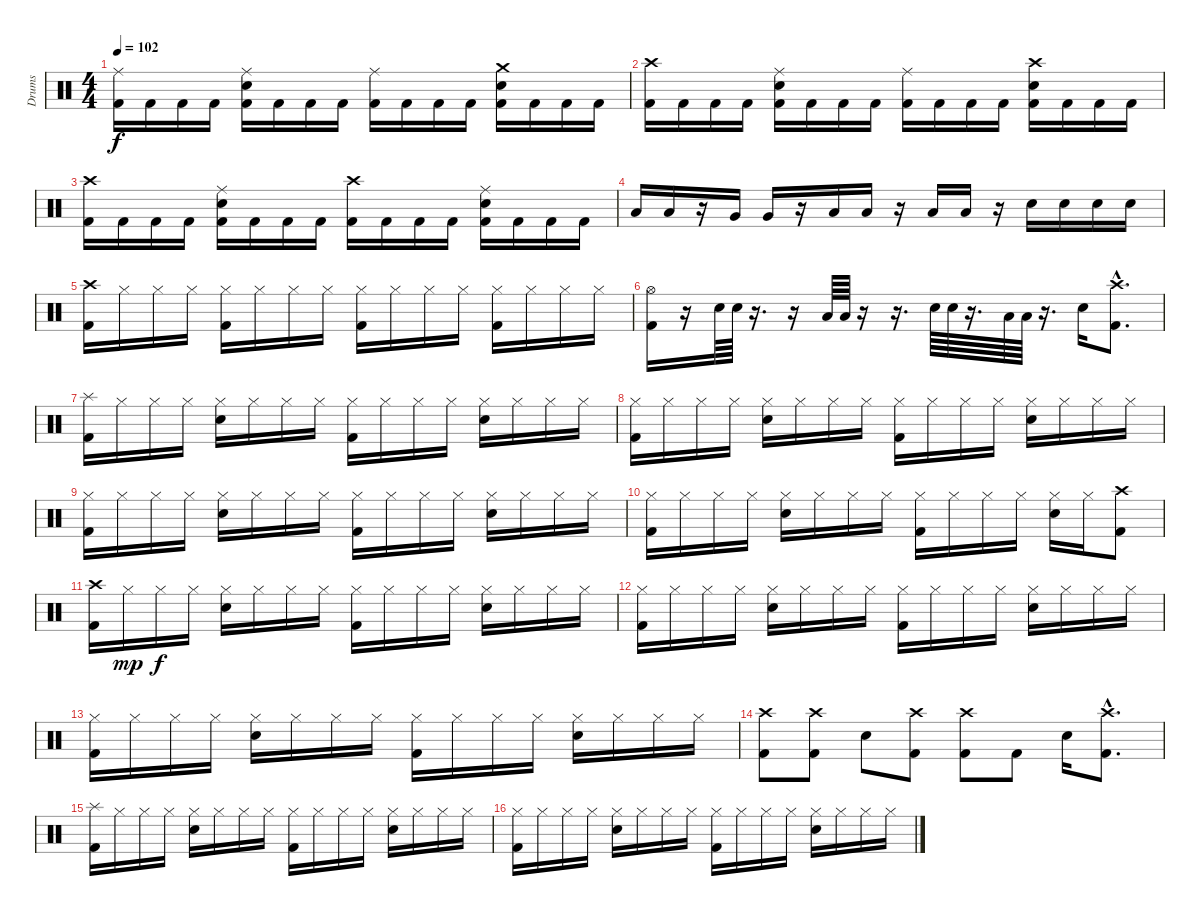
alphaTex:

\track ("Drums" "Drums") {instrument percussion}
\staff {score}
\articulation defaults
\ts (4 4)
\tempo 102
\clef neutral
\ks c
("Ride (middle)" "Kick (hit) 2").16{dy f} "Kick (hit) 2".16 "Kick (hit) 2".16 "Kick (hit) 2".16 ("Ride (middle)" "Snare (hit) 2" "Kick (hit) 2").16 "Kick (hit) 2".16 "Kick (hit) 2".16 "Kick (hit) 2".16 ("Ride (middle)" "Kick (hit) 2").16 "Kick (hit) 2".16 "Kick (hit) 2".16 "Kick (hit) 2".16 ("Crash medium (hit)" "Snare (hit) 2" "Kick (hit) 2").16 "Kick (hit) 2".16 "Kick (hit) 2".16 "Kick (hit) 2".16 |
("Crash high (hit)" "Kick (hit) 2").16 "Kick (hit) 2".16 "Kick (hit) 2".16 "Kick (hit) 2".16 ("Ride (middle)" "Snare (hit) 2" "Kick (hit) 2").16 "Kick (hit) 2".16 "Kick (hit) 2".16 "Kick (hit) 2".16 ("Ride (middle)" "Kick (hit) 2").16 "Kick (hit) 2".16 "Kick (hit) 2".16 "Kick (hit) 2".16 ("Crash high (hit)" "Snare (hit) 2" "Kick (hit) 2").16 "Kick (hit) 2".16 "Kick (hit) 2".16 "Kick (hit) 2".16 |
("Crash high (hit)" "Kick (hit) 2").16 "Kick (hit) 2".16 "Kick (hit) 2".16 "Kick (hit) 2".16 ("Ride (middle)" "Snare (hit) 2" "Kick (hit) 2").16 "Kick (hit) 2".16 "Kick (hit) 2".16 "Kick (hit) 2".16 ("Crash high (hit)" "Kick (hit) 2").16 "Kick (hit) 2".16 "Kick (hit) 2".16 "Kick (hit) 2".16 ("Ride (middle)" "Snare (hit) 2" "Kick (hit) 2").16 "Kick (hit) 2".16 "Kick (hit) 2".16 "Kick (hit) 2".16 |
"Low Tom (hit)".16 "Low Tom (hit)".16 r.16 "Very Low Tom (hit)".16 "Very Low Tom (hit)".16 r.16 "Low Floor Tom (hit)".16 "Low Floor Tom (hit)".16 r.16 "Low Floor Tom (hit)".16 "Low Floor Tom (hit)".16 r.16 "Snare (hit) 2".16 "Snare (hit) 2".16 "Snare (hit) 2".16 "Snare (hit) 2".16 |
("Crash high (hit)" "Kick (hit) 2").16 "Hi-Hat (closed)".16 "Hi-Hat (closed)".16 "Hi-Hat (closed)".16 ("Hi-Hat (closed)" "Kick (hit) 2").16 "Hi-Hat (closed)".16 "Hi-Hat (closed)".16 "Hi-Hat (closed)".16 ("Hi-Hat (closed)" "Kick (hit) 2").16 "Hi-Hat (closed)".16 "Hi-Hat (closed)".16 "Hi-Hat (closed)".16 ("Hi-Hat (closed)" "Kick (hit) 2").16 "Hi-Hat (closed)".16 "Hi-Hat (closed)".16 "Hi-Hat (closed)".16 |
("Hi-Hat (open)" "Kick (hit) 2").16 r.16 "Snare (hit) 2".64 "Snare (hit) 2".64 r.16{d} r.16 "Low Tom (hit)".64 "Low Tom (hit)".64 r.16 r.16{d} "Snare (hit) 2".64 "Snare (hit) 2".64 r.16{d} "Low Tom (hit)".64 "Low Tom (hit)".64 r.16{d} "Snare (hit) 2".16 ("Crash high (hit)"{hac} "Kick (hit) 2"{hac}).8{d} |
("Splash (hit)" "Kick (hit) 2").16 "Hi-Hat (closed)".16 "Hi-Hat (closed)".16 "Hi-Hat (closed)".16 ("Hi-Hat (closed)" "Snare (hit) 2").16 "Hi-Hat (closed)".16 "Hi-Hat (closed)".16 "Hi-Hat (closed)".16 ("Hi-Hat (closed)" "Kick (hit) 2").16 "Hi-Hat (closed)".16 "Hi-Hat (closed)".16 "Hi-Hat (closed)".16 ("Hi-Hat (closed)" "Snare (hit) 2").16 "Hi-Hat (closed)".16 "Hi-Hat (closed)".16 "Hi-Hat (closed)".16 |
("Hi-Hat (closed)" "Kick (hit) 2").16 "Hi-Hat (closed)".16 "Hi-Hat (closed)".16 "Hi-Hat (closed)".16 ("Hi-Hat (closed)" "Snare (hit) 2").16 "Hi-Hat (closed)".16 "Hi-Hat (closed)".16 "Hi-Hat (closed)".16 ("Hi-Hat (closed)" "Kick (hit) 2").16 "Hi-Hat (closed)".16 "Hi-Hat (closed)".16 "Hi-Hat (closed)".16 ("Hi-Hat (closed)" "Snare (hit) 2").16 "Hi-Hat (closed)".16 "Hi-Hat (closed)".16 "Hi-Hat (closed)".16 |
("Hi-Hat (closed)" "Kick (hit) 2").16 "Hi-Hat (closed)".16 "Hi-Hat (closed)".16 "Hi-Hat (closed)".16 ("Hi-Hat (closed)" "Snare (hit) 2").16 "Hi-Hat (closed)".16 "Hi-Hat (closed)".16 "Hi-Hat (closed)".16 ("Hi-Hat (closed)" "Kick (hit) 2").16 "Hi-Hat (closed)".16 "Hi-Hat (closed)".16 "Hi-Hat (closed)".16 ("Hi-Hat (closed)" "Snare (hit) 2").16 "Hi-Hat (closed)".16 "Hi-Hat (closed)".16 "Hi-Hat (closed)".16 |
("Hi-Hat (closed)" "Kick (hit) 2").16 "Hi-Hat (closed)".16 "Hi-Hat (closed)".16 "Hi-Hat (closed)".16 ("Hi-Hat (closed)" "Snare (hit) 2").16 "Hi-Hat (closed)".16 "Hi-Hat (closed)".16 "Hi-Hat (closed)".16 ("Hi-Hat (closed)" "Kick (hit) 2").16 "Hi-Hat (closed)".16 "Hi-Hat (closed)".16 "Hi-Hat (closed)".16 ("Hi-Hat (closed)" "Snare (hit) 2").16 "Hi-Hat (closed)".16 ("Crash high (hit)" "Kick (hit) 2").8 |
("Crash high (hit)" "Kick (hit) 2").16 "Hi-Hat (closed)".16{dy mp} "Hi-Hat (closed)".16{dy f} "Hi-Hat (closed)".16 ("Hi-Hat (closed)" "Snare (hit) 2").16 "Hi-Hat (closed)".16 "Hi-Hat (closed)".16 "Hi-Hat (closed)".16 ("Hi-Hat (closed)" "Kick (hit) 2").16 "Hi-Hat (closed)".16 "Hi-Hat (closed)".16 "Hi-Hat (closed)".16 ("Hi-Hat (closed)" "Snare (hit) 2").16 "Hi-Hat (closed)".16 "Hi-Hat (closed)".16 "Hi-Hat (closed)".16 |
("Hi-Hat (closed)" "Kick (hit) 2").16 "Hi-Hat (closed)".16 "Hi-Hat (closed)".16 "Hi-Hat (closed)".16 ("Hi-Hat (closed)" "Snare (hit) 2").16 "Hi-Hat (closed)".16 "Hi-Hat (closed)".16 "Hi-Hat (closed)".16 ("Hi-Hat (closed)" "Kick (hit) 2").16 "Hi-Hat (closed)".16 "Hi-Hat (closed)".16 "Hi-Hat (closed)".16 ("Hi-Hat (closed)" "Snare (hit) 2").16 "Hi-Hat (closed)".16 "Hi-Hat (closed)".16 "Hi-Hat (closed)".16 |
("Hi-Hat (closed)" "Kick (hit) 2").16 "Hi-Hat (closed)".16 "Hi-Hat (closed)".16 "Hi-Hat (closed)".16 ("Hi-Hat (closed)" "Snare (hit) 2").16 "Hi-Hat (closed)".16 "Hi-Hat (closed)".16 "Hi-Hat (closed)".16 ("Hi-Hat (closed)" "Kick (hit) 2").16 "Hi-Hat (closed)".16 "Hi-Hat (closed)".16 "Hi-Hat (closed)".16 ("Hi-Hat (closed)" "Snare (hit) 2").16 "Hi-Hat (closed)".16 "Hi-Hat (closed)".16 "Hi-Hat (closed)".16 |
("Crash high (hit)" "Kick (hit) 2").8 ("Crash high (hit)" "Kick (hit) 2").8 "Snare (hit) 2".8 ("Crash high (hit)" "Kick (hit) 2").8 ("Crash high (hit)" "Kick (hit) 2").8 "Kick (hit) 2".8 "Snare (hit) 2".16 ("Crash high (hit)"{hac} "Kick (hit) 2"{hac}).8{d} |
("Splash (hit)" "Kick (hit) 2").16 "Hi-Hat (closed)".16 "Hi-Hat (closed)".16 "Hi-Hat (closed)".16 ("Hi-Hat (closed)" "Snare (hit) 2").16 "Hi-Hat (closed)".16 "Hi-Hat (closed)".16 "Hi-Hat (closed)".16 ("Hi-Hat (closed)" "Kick (hit) 2").16 "Hi-Hat (closed)".16 "Hi-Hat (closed)".16 "Hi-Hat (closed)".16 ("Hi-Hat (closed)" "Snare (hit) 2").16 "Hi-Hat (closed)".16 "Hi-Hat (closed)".16 "Hi-Hat (closed)".16 |
("Hi-Hat (closed)" "Kick (hit) 2").16 "Hi-Hat (closed)".16 "Hi-Hat (closed)".16 "Hi-Hat (closed)".16 ("Hi-Hat (closed)" "Snare (hit) 2").16 "Hi-Hat (closed)".16 "Hi-Hat (closed)".16 "Hi-Hat (closed)".16 ("Hi-Hat (closed)" "Kick (hit) 2").16 "Hi-Hat (closed)".16 "Hi-Hat (closed)".16 "Hi-Hat (closed)".16 ("Hi-Hat (closed)" "Snare (hit) 2").16 "Hi-Hat (closed)".16 "Hi-Hat (closed)".16 "Hi-Hat (closed)".16
